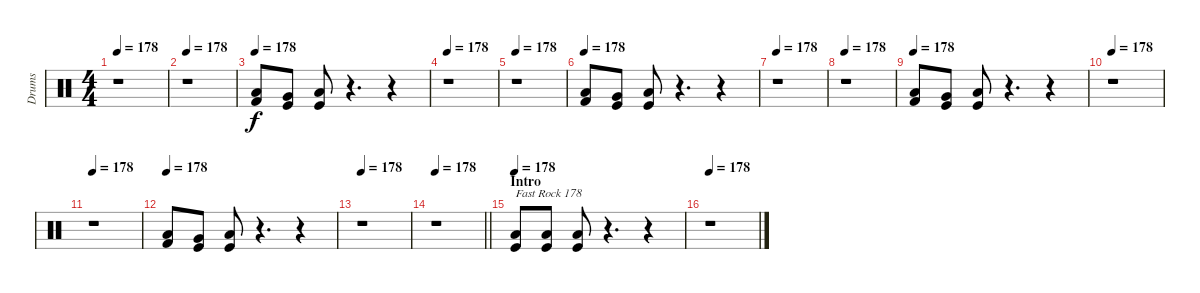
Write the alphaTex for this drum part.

\track ("Drums" "Drums") {instrument percussion}
\staff {score}
\articulation defaults
\ts (4 4)
\tempo 178
\clef neutral
\ks c
r.1{dy f} |
\tempo 178
r.1 |
\tempo 178
("Low Floor Tom (hit)" "Kick (hit) 2").8 ("Very Low Tom (hit)" "Kick (hit)").8 ("Low Floor Tom (hit)" "Kick (hit)").8 r.4{d} r.4 |
\tempo 178
r.1 |
\tempo 178
r.1 |
\tempo 178
("Low Floor Tom (hit)" "Kick (hit) 2").8 ("Very Low Tom (hit)" "Kick (hit)").8 ("Low Floor Tom (hit)" "Kick (hit)").8 r.4{d} r.4 |
\tempo 178
r.1 |
\tempo 178
r.1 |
\tempo 178
("Low Floor Tom (hit)" "Kick (hit) 2").8 ("Very Low Tom (hit)" "Kick (hit)").8 ("Low Floor Tom (hit)" "Kick (hit)").8 r.4{d} r.4 |
\tempo 178
r.1 |
\tempo 178
r.1 |
\tempo 178
("Low Floor Tom (hit)" "Kick (hit) 2").8 ("Very Low Tom (hit)" "Kick (hit)").8 ("Low Floor Tom (hit)" "Kick (hit)").8 r.4{d} r.4 |
\tempo 178
r.1 |
\tempo 178
\barLineRight lightlight
r.1 |
\section ("" "Intro")
\tempo 178
("Low Floor Tom (hit)" "Kick (hit)").8{txt "Fast Rock 178"} ("Low Floor Tom (hit)" "Kick (hit)").8 ("Low Floor Tom (hit)" "Kick (hit)").8 r.4{d} r.4 |
\tempo 178
r.1
